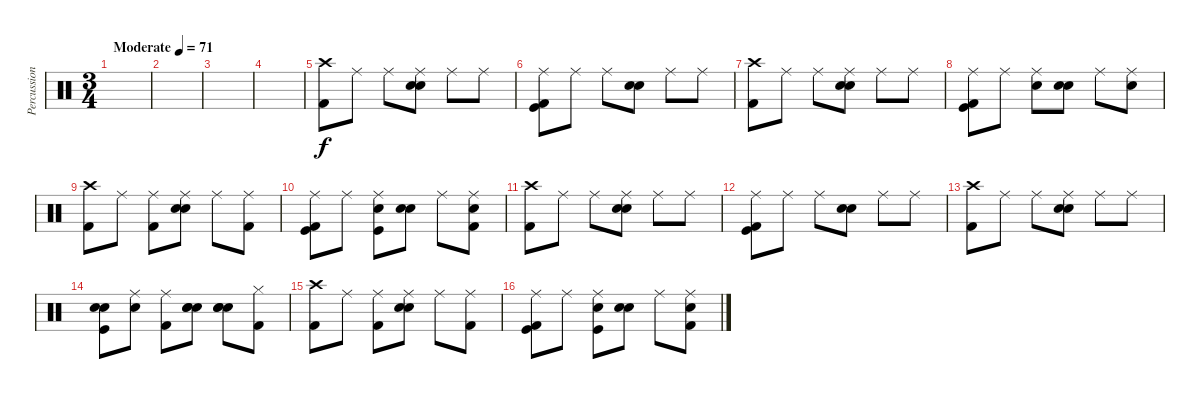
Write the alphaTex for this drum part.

\track ("Percussion" "Percussion") {instrument percussion}
\staff {score}
\articulation defaults
\ts (3 4)
\tempo (71 "Moderate")
\clef neutral
\ks c
|
|
|
|
("Kick (hit) 2" "Crash high (hit)").8 "Ride (middle)".8 "Ride (middle)".8 ("Ride (middle)" "Electric Snare (hit)" "Snare (hit) 2").8 "Ride (middle)".8 "Ride (middle)".8 |
("Ride (middle)" "Kick (hit) 2" "Kick (hit)").8 "Ride (middle)".8 "Ride (middle)".8 ("Electric Snare (hit)" "Snare (hit) 2").8 "Ride (middle)".8 "Ride (middle)".8 |
("Kick (hit) 2" "Crash high (hit)").8 "Ride (middle)".8 "Ride (middle)".8 ("Ride (middle)" "Electric Snare (hit)" "Snare (hit) 2").8 "Ride (middle)".8 "Ride (middle)".8 |
("Ride (middle)" "Kick (hit) 2" "Kick (hit)").8 "Ride (middle)".8 ("Snare (hit) 2" "Ride (middle)").8 ("Electric Snare (hit)" "Snare (hit) 2").8 "Ride (middle)".8 ("Snare (hit) 2" "Ride (middle)").8 |
("Kick (hit) 2" "Crash high (hit)").8 "Ride (middle)".8 ("Kick (hit) 2" "Ride (middle)").8 ("Ride (middle)" "Electric Snare (hit)" "Snare (hit) 2").8 "Ride (middle)".8 ("Kick (hit) 2" "Ride (middle)").8 |
("Ride (middle)" "Kick (hit) 2" "Kick (hit)").8 "Ride (middle)".8 ("Kick (hit)" "Snare (hit) 2" "Ride (middle)").8 ("Electric Snare (hit)" "Snare (hit) 2").8 "Ride (middle)".8 ("Kick (hit) 2" "Snare (hit) 2" "Ride (middle)").8 |
("Kick (hit) 2" "Crash high (hit)").8 "Ride (middle)".8 "Ride (middle)".8 ("Ride (middle)" "Electric Snare (hit)" "Snare (hit) 2").8 "Ride (middle)".8 "Ride (middle)".8 |
("Ride (middle)" "Kick (hit) 2" "Kick (hit)").8 "Ride (middle)".8 "Ride (middle)".8 ("Electric Snare (hit)" "Snare (hit) 2").8 "Ride (middle)".8 "Ride (middle)".8 |
("Kick (hit) 2" "Crash high (hit)").8 "Ride (middle)".8 "Ride (middle)".8 ("Ride (middle)" "Electric Snare (hit)" "Snare (hit) 2").8 "Ride (middle)".8 "Ride (middle)".8 |
("Electric Snare (hit)" "Snare (hit) 2" "Kick (hit)").8 ("Electric Snare (hit)" "Ride (middle)").8 ("Kick (hit) 2" "Ride (middle)").8 ("Electric Snare (hit)" "Electric Snare (hit)" "Snare (hit) 2").8 ("Electric Snare (hit)" "Electric Snare (hit)" "Snare (hit) 2").8 ("Kick (hit) 2" "Hi-Hat (closed)").8 |
("Kick (hit) 2" "Crash high (hit)").8 "Ride (middle)".8 ("Kick (hit) 2" "Ride (middle)").8 ("Ride (middle)" "Electric Snare (hit)" "Snare (hit) 2").8 "Ride (middle)".8 ("Kick (hit) 2" "Ride (middle)").8 |
("Ride (middle)" "Kick (hit) 2" "Kick (hit)").8 "Ride (middle)".8 ("Kick (hit)" "Snare (hit) 2" "Ride (middle)").8 ("Electric Snare (hit)" "Snare (hit) 2").8 "Ride (middle)".8 ("Kick (hit) 2" "Snare (hit) 2" "Ride (middle)").8
